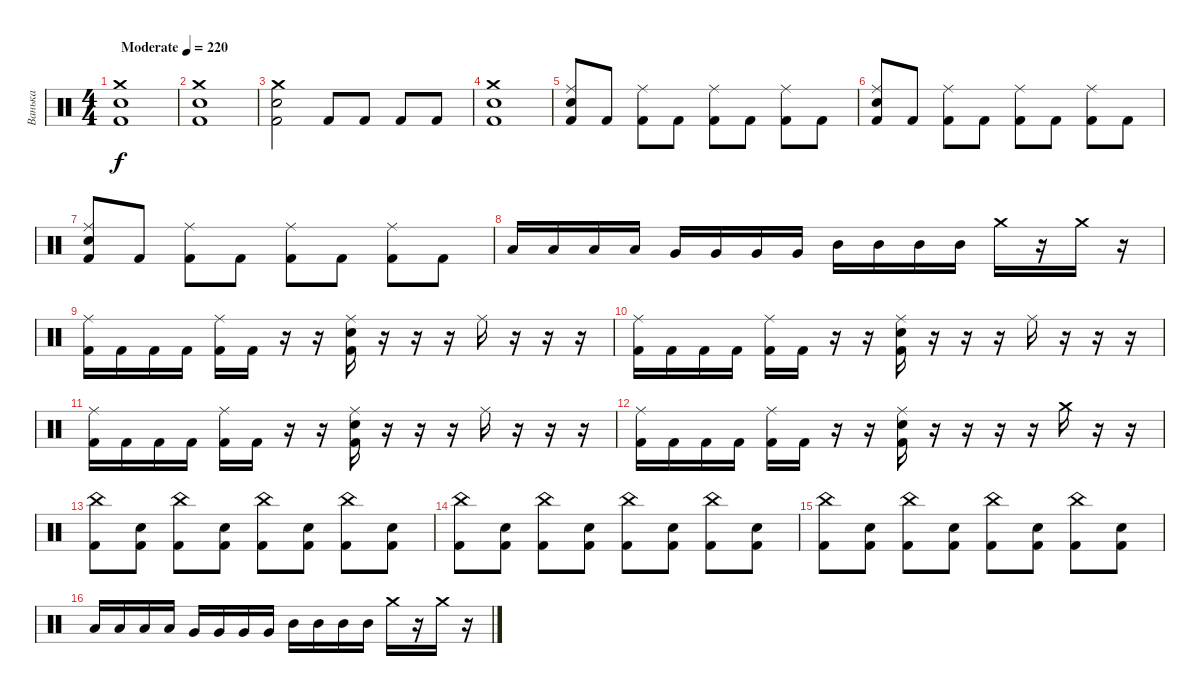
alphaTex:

\track ("Ванька" "Ванька") {instrument percussion}
\staff {score}
\articulation defaults
\ts (4 4)
\tempo (220 "Moderate")
\clef neutral
\ks c
("Crash medium (hit)" "Snare (hit) 2" "Kick (hit) 2").1{dy f} |
("Crash medium (hit)" "Snare (hit) 2" "Kick (hit) 2").1 |
("Crash medium (hit)" "Snare (hit) 2" "Kick (hit) 2").2 "Kick (hit) 2".8 "Kick (hit) 2".8 "Kick (hit) 2".8 "Kick (hit) 2".8 |
("Crash medium (hit)" "Snare (hit) 2" "Kick (hit) 2").1 |
("Ride (middle)" "Electric Snare (hit)" "Kick (hit) 2").8 "Kick (hit) 2".8 ("Ride (middle)" "Kick (hit) 2").8 "Kick (hit) 2".8 ("Ride (middle)" "Kick (hit) 2").8 "Kick (hit) 2".8 ("Ride (middle)" "Kick (hit) 2").8 "Kick (hit) 2".8 |
("Ride (middle)" "Electric Snare (hit)" "Kick (hit) 2").8 "Kick (hit) 2".8 ("Ride (middle)" "Kick (hit) 2").8 "Kick (hit) 2".8 ("Ride (middle)" "Kick (hit) 2").8 "Kick (hit) 2".8 ("Ride (middle)" "Kick (hit) 2").8 "Kick (hit) 2".8 |
("Ride (middle)" "Electric Snare (hit)" "Kick (hit) 2").8 "Kick (hit) 2".8 ("Ride (middle)" "Kick (hit) 2").8 "Kick (hit) 2".8 ("Ride (middle)" "Kick (hit) 2").8 "Kick (hit) 2".8 ("Ride (middle)" "Kick (hit) 2").8 "Kick (hit) 2".8 |
"Low Floor Tom (hit)".16 "Low Floor Tom (hit)".16 "Low Floor Tom (hit)".16 "Low Floor Tom (hit)".16 "Very Low Tom (hit)".16 "Very Low Tom (hit)".16 "Very Low Tom (hit)".16 "Very Low Tom (hit)".16 "Mid Tom (hit)".16 "Mid Tom (hit)".16 "Mid Tom (hit)".16 "Mid Tom (hit)".16 "Crash medium (hit)".16 r.16 "Crash medium (hit)".16 r.16 |
("Ride (middle)" "Kick (hit) 2").16 "Kick (hit) 2".16 "Kick (hit) 2".16 "Kick (hit) 2".16 ("Ride (middle)" "Kick (hit) 2").16 "Kick (hit) 2".16 r.16 r.16 ("Ride (middle)" "Snare (hit) 2" "Kick (hit) 2").16 r.16 r.16 r.16 "Ride (middle)".16 r.16 r.16 r.16 |
("Ride (middle)" "Kick (hit) 2").16 "Kick (hit) 2".16 "Kick (hit) 2".16 "Kick (hit) 2".16 ("Ride (middle)" "Kick (hit) 2").16 "Kick (hit) 2".16 r.16 r.16 ("Ride (middle)" "Snare (hit) 2" "Kick (hit) 2").16 r.16 r.16 r.16 "Ride (middle)".16 r.16 r.16 r.16 |
("Ride (middle)" "Kick (hit) 2").16 "Kick (hit) 2".16 "Kick (hit) 2".16 "Kick (hit) 2".16 ("Ride (middle)" "Kick (hit) 2").16 "Kick (hit) 2".16 r.16 r.16 ("Ride (middle)" "Snare (hit) 2" "Kick (hit) 2").16 r.16 r.16 r.16 "Ride (middle)".16 r.16 r.16 r.16 |
("Ride (middle)" "Kick (hit) 2").16 "Kick (hit) 2".16 "Kick (hit) 2".16 "Kick (hit) 2".16 ("Ride (middle)" "Kick (hit) 2").16 "Kick (hit) 2".16 r.16 r.16 ("Ride (middle)" "Snare (hit) 2" "Kick (hit) 2").16 r.16 r.16 r.16 r.16 "Crash medium (hit)".16 r.16 r.16 |
("China (hit)" "Kick (hit) 2").8 ("Snare (hit) 2" "Kick (hit) 2").8 ("China (hit)" "Kick (hit) 2").8 ("Snare (hit) 2" "Kick (hit) 2").8 ("China (hit)" "Kick (hit) 2").8 ("Snare (hit) 2" "Kick (hit) 2").8 ("China (hit)" "Kick (hit) 2").8 ("Snare (hit) 2" "Kick (hit) 2").8 |
("China (hit)" "Kick (hit) 2").8 ("Snare (hit) 2" "Kick (hit) 2").8 ("China (hit)" "Kick (hit) 2").8 ("Snare (hit) 2" "Kick (hit) 2").8 ("China (hit)" "Kick (hit) 2").8 ("Snare (hit) 2" "Kick (hit) 2").8 ("China (hit)" "Kick (hit) 2").8 ("Snare (hit) 2" "Kick (hit) 2").8 |
("China (hit)" "Kick (hit) 2").8 ("Snare (hit) 2" "Kick (hit) 2").8 ("China (hit)" "Kick (hit) 2").8 ("Snare (hit) 2" "Kick (hit) 2").8 ("China (hit)" "Kick (hit) 2").8 ("Snare (hit) 2" "Kick (hit) 2").8 ("China (hit)" "Kick (hit) 2").8 ("Snare (hit) 2" "Kick (hit) 2").8 |
"Low Floor Tom (hit)".16 "Low Floor Tom (hit)".16 "Low Floor Tom (hit)".16 "Low Floor Tom (hit)".16 "Very Low Tom (hit)".16 "Very Low Tom (hit)".16 "Very Low Tom (hit)".16 "Very Low Tom (hit)".16 "Mid Tom (hit)".16 "Mid Tom (hit)".16 "Mid Tom (hit)".16 "Mid Tom (hit)".16 "Crash medium (hit)".16 r.16 "Crash medium (hit)".16 r.16
